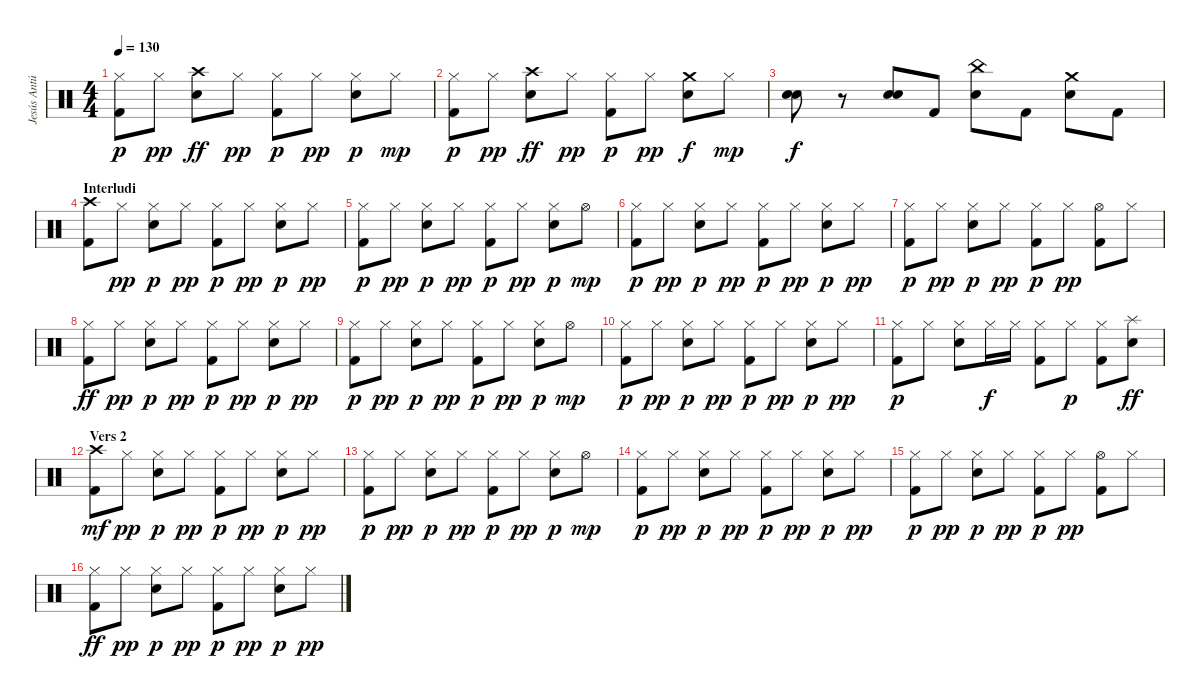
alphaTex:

\track ("Jesús Antúnez (Bateria)" "Jesús Antú") {instrument percussion}
\staff {score}
\articulation defaults
\ts (4 4)
\tempo 130
\clef neutral
\ks c
("Hi-Hat (closed)" "Kick (hit) 2").8{dy p} "Hi-Hat (closed)".8{dy pp} ("Crash high (hit)" "Snare (hit) 2").8{dy ff} "Hi-Hat (closed)".8{dy pp} ("Kick (hit) 2" "Hi-Hat (closed)").8{dy p} "Hi-Hat (closed)".8{dy pp} ("Snare (hit) 2" "Hi-Hat (closed)").8{dy p} "Hi-Hat (closed)".8{dy mp} |
("Hi-Hat (closed)" "Kick (hit) 2").8{dy p} "Hi-Hat (closed)".8{dy pp} ("Crash high (hit)" "Snare (hit) 2").8{dy ff} "Hi-Hat (closed)".8{dy pp} ("Kick (hit) 2" "Hi-Hat (closed)").8{dy p} "Hi-Hat (closed)".8{dy pp} ("Snare (hit) 2" "Crash medium (hit)").8{dy f} "Hi-Hat (closed)".8{dy mp} |
("Snare (hit) 2" "Snare (hit) 2").8{dy f} r.8 ("Snare (hit) 2" "Snare (hit) 2").8 "Kick (hit) 2".8 ("China (hit)" "Snare (hit) 2").8 "Kick (hit) 2".8 ("Crash medium (hit)" "Snare (hit) 2").8 "Kick (hit) 2".8 |
\section ("" "Interludi")
("Crash high (hit)" "Kick (hit) 2").8 "Hi-Hat (closed)".8{dy pp} ("Snare (hit) 2" "Hi-Hat (closed)").8{dy p} "Hi-Hat (closed)".8{dy pp} ("Kick (hit) 2" "Hi-Hat (closed)").8{dy p} "Hi-Hat (closed)".8{dy pp} ("Snare (hit) 2" "Hi-Hat (closed)").8{dy p} "Hi-Hat (closed)".8{dy pp} |
("Hi-Hat (closed)" "Kick (hit) 2").8{dy p} "Hi-Hat (closed)".8{dy pp} ("Snare (hit) 2" "Hi-Hat (closed)").8{dy p} "Hi-Hat (closed)".8{dy pp} ("Kick (hit) 2" "Hi-Hat (closed)").8{dy p} "Hi-Hat (closed)".8{dy pp} ("Snare (hit) 2" "Hi-Hat (closed)").8{dy p} "Hi-Hat (open)".8{dy mp} |
("Hi-Hat (closed)" "Kick (hit) 2").8{dy p} "Hi-Hat (closed)".8{dy pp} ("Snare (hit) 2" "Hi-Hat (closed)").8{dy p} "Hi-Hat (closed)".8{dy pp} ("Kick (hit) 2" "Hi-Hat (closed)").8{dy p} "Hi-Hat (closed)".8{dy pp} ("Snare (hit) 2" "Hi-Hat (closed)").8{dy p} "Hi-Hat (closed)".8{dy pp} |
("Hi-Hat (closed)" "Kick (hit) 2").8{dy p} "Hi-Hat (closed)".8{dy pp} ("Snare (hit) 2" "Hi-Hat (closed)").8{dy p} "Hi-Hat (closed)".8{dy pp} ("Kick (hit) 2" "Hi-Hat (closed)").8{dy p} "Hi-Hat (closed)".8{dy pp} ("Kick (hit) 2" "Hi-Hat (open)").8 "Hi-Hat (closed)".8 |
("Hi-Hat (closed)" "Kick (hit) 2").8{dy ff} "Hi-Hat (closed)".8{dy pp} ("Snare (hit) 2" "Hi-Hat (closed)").8{dy p} "Hi-Hat (closed)".8{dy pp} ("Kick (hit) 2" "Hi-Hat (closed)").8{dy p} "Hi-Hat (closed)".8{dy pp} ("Snare (hit) 2" "Hi-Hat (closed)").8{dy p} "Hi-Hat (closed)".8{dy pp} |
("Hi-Hat (closed)" "Kick (hit) 2").8{dy p} "Hi-Hat (closed)".8{dy pp} ("Snare (hit) 2" "Hi-Hat (closed)").8{dy p} "Hi-Hat (closed)".8{dy pp} ("Kick (hit) 2" "Hi-Hat (closed)").8{dy p} "Hi-Hat (closed)".8{dy pp} ("Snare (hit) 2" "Hi-Hat (closed)").8{dy p} "Hi-Hat (open)".8{dy mp} |
("Hi-Hat (closed)" "Kick (hit) 2").8{dy p} "Hi-Hat (closed)".8{dy pp} ("Snare (hit) 2" "Hi-Hat (closed)").8{dy p} "Hi-Hat (closed)".8{dy pp} ("Kick (hit) 2" "Hi-Hat (closed)").8{dy p} "Hi-Hat (closed)".8{dy pp} ("Snare (hit) 2" "Hi-Hat (closed)").8{dy p} "Hi-Hat (closed)".8{dy pp} |
("Hi-Hat (closed)" "Kick (hit) 2").8{dy p} "Hi-Hat (closed)".8 ("Hi-Hat (closed)" "Snare (hit) 2").8 "Hi-Hat (closed)".16{dy f} "Hi-Hat (closed)".16 ("Kick (hit) 2" "Hi-Hat (closed)").8 "Hi-Hat (closed)".8{dy p} ("Kick (hit) 2" "Hi-Hat (closed)").8 ("Splash (hit)" "Snare (hit) 2").8{dy ff} |
\section ("" "Vers 2")
("Crash high (hit)" "Kick (hit) 2").8{dy mf} "Hi-Hat (closed)".8{dy pp} ("Snare (hit) 2" "Hi-Hat (closed)").8{dy p} "Hi-Hat (closed)".8{dy pp} ("Kick (hit) 2" "Hi-Hat (closed)").8{dy p} "Hi-Hat (closed)".8{dy pp} ("Snare (hit) 2" "Hi-Hat (closed)").8{dy p} "Hi-Hat (closed)".8{dy pp} |
("Hi-Hat (closed)" "Kick (hit) 2").8{dy p} "Hi-Hat (closed)".8{dy pp} ("Snare (hit) 2" "Hi-Hat (closed)").8{dy p} "Hi-Hat (closed)".8{dy pp} ("Kick (hit) 2" "Hi-Hat (closed)").8{dy p} "Hi-Hat (closed)".8{dy pp} ("Snare (hit) 2" "Hi-Hat (closed)").8{dy p} "Hi-Hat (open)".8{dy mp} |
("Hi-Hat (closed)" "Kick (hit) 2").8{dy p} "Hi-Hat (closed)".8{dy pp} ("Snare (hit) 2" "Hi-Hat (closed)").8{dy p} "Hi-Hat (closed)".8{dy pp} ("Kick (hit) 2" "Hi-Hat (closed)").8{dy p} "Hi-Hat (closed)".8{dy pp} ("Snare (hit) 2" "Hi-Hat (closed)").8{dy p} "Hi-Hat (closed)".8{dy pp} |
("Hi-Hat (closed)" "Kick (hit) 2").8{dy p} "Hi-Hat (closed)".8{dy pp} ("Snare (hit) 2" "Hi-Hat (closed)").8{dy p} "Hi-Hat (closed)".8{dy pp} ("Kick (hit) 2" "Hi-Hat (closed)").8{dy p} "Hi-Hat (closed)".8{dy pp} ("Kick (hit) 2" "Hi-Hat (open)").8 "Hi-Hat (closed)".8 |
("Hi-Hat (closed)" "Kick (hit) 2").8{dy ff} "Hi-Hat (closed)".8{dy pp} ("Snare (hit) 2" "Hi-Hat (closed)").8{dy p} "Hi-Hat (closed)".8{dy pp} ("Kick (hit) 2" "Hi-Hat (closed)").8{dy p} "Hi-Hat (closed)".8{dy pp} ("Snare (hit) 2" "Hi-Hat (closed)").8{dy p} "Hi-Hat (closed)".8{dy pp}
